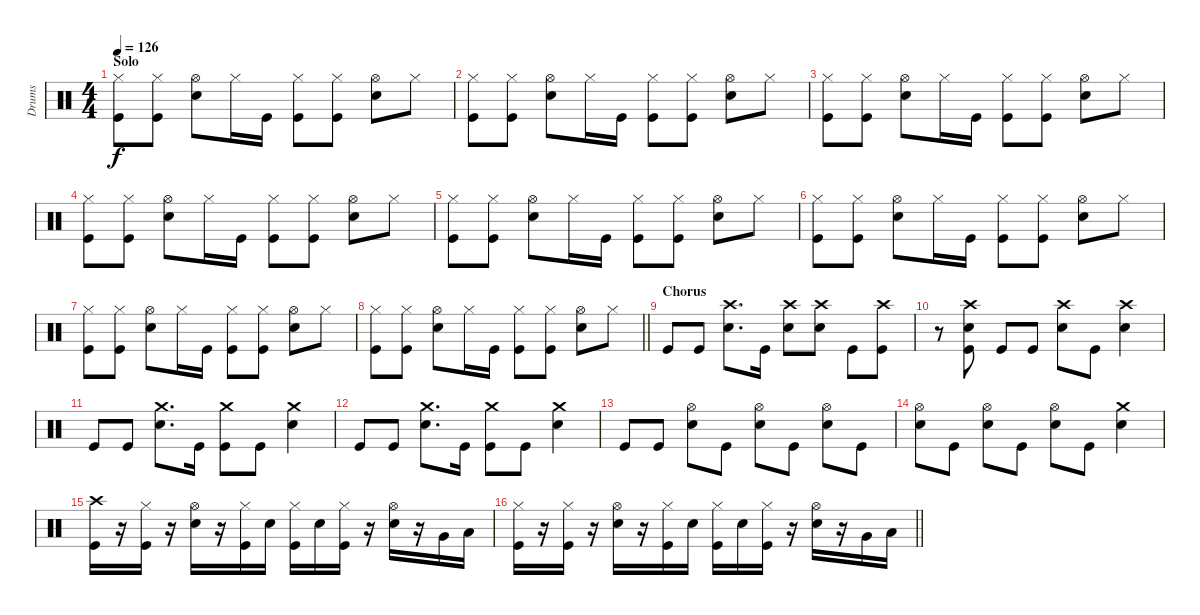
\track ("Drums" "Drums") {instrument percussion}
\staff {score}
\articulation defaults
\ts (4 4)
\section ("" "Solo")
\tempo 126
\clef neutral
\ks c
("Hi-Hat (closed)" "Kick (hit)").8{dy f} ("Hi-Hat (closed)" "Kick (hit)").8 ("Hi-Hat (open)" "Snare (hit) 2").8 "Hi-Hat (closed)".16 "Kick (hit)".16 ("Hi-Hat (closed)" "Kick (hit)").8 ("Hi-Hat (closed)" "Kick (hit)").8 ("Hi-Hat (open)" "Snare (hit) 2").8 "Hi-Hat (closed)".8 |
("Hi-Hat (closed)" "Kick (hit)").8 ("Hi-Hat (closed)" "Kick (hit)").8 ("Hi-Hat (open)" "Snare (hit) 2").8 "Hi-Hat (closed)".16 "Kick (hit)".16 ("Hi-Hat (closed)" "Kick (hit)").8 ("Hi-Hat (closed)" "Kick (hit)").8 ("Hi-Hat (open)" "Snare (hit) 2").8 "Hi-Hat (closed)".8 |
("Hi-Hat (closed)" "Kick (hit)").8 ("Hi-Hat (closed)" "Kick (hit)").8 ("Hi-Hat (open)" "Snare (hit) 2").8 "Hi-Hat (closed)".16 "Kick (hit)".16 ("Hi-Hat (closed)" "Kick (hit)").8 ("Hi-Hat (closed)" "Kick (hit)").8 ("Hi-Hat (open)" "Snare (hit) 2").8 "Hi-Hat (closed)".8 |
("Hi-Hat (closed)" "Kick (hit)").8 ("Hi-Hat (closed)" "Kick (hit)").8 ("Hi-Hat (open)" "Snare (hit) 2").8 "Hi-Hat (closed)".16 "Kick (hit)".16 ("Hi-Hat (closed)" "Kick (hit)").8 ("Hi-Hat (closed)" "Kick (hit)").8 ("Hi-Hat (open)" "Snare (hit) 2").8 "Hi-Hat (closed)".8 |
("Hi-Hat (closed)" "Kick (hit)").8 ("Hi-Hat (closed)" "Kick (hit)").8 ("Hi-Hat (open)" "Snare (hit) 2").8 "Hi-Hat (closed)".16 "Kick (hit)".16 ("Hi-Hat (closed)" "Kick (hit)").8 ("Hi-Hat (closed)" "Kick (hit)").8 ("Hi-Hat (open)" "Snare (hit) 2").8 "Hi-Hat (closed)".8 |
("Hi-Hat (closed)" "Kick (hit)").8 ("Hi-Hat (closed)" "Kick (hit)").8 ("Hi-Hat (open)" "Snare (hit) 2").8 "Hi-Hat (closed)".16 "Kick (hit)".16 ("Hi-Hat (closed)" "Kick (hit)").8 ("Hi-Hat (closed)" "Kick (hit)").8 ("Hi-Hat (open)" "Snare (hit) 2").8 "Hi-Hat (closed)".8 |
("Hi-Hat (closed)" "Kick (hit)").8 ("Hi-Hat (closed)" "Kick (hit)").8 ("Hi-Hat (open)" "Snare (hit) 2").8 "Hi-Hat (closed)".16 "Kick (hit)".16 ("Hi-Hat (closed)" "Kick (hit)").8 ("Hi-Hat (closed)" "Kick (hit)").8 ("Hi-Hat (open)" "Snare (hit) 2").8 "Hi-Hat (closed)".8 |
\barLineRight lightlight
("Hi-Hat (closed)" "Kick (hit)").8 ("Hi-Hat (closed)" "Kick (hit)").8 ("Hi-Hat (open)" "Snare (hit) 2").8 "Hi-Hat (closed)".16 "Kick (hit)".16 ("Hi-Hat (closed)" "Kick (hit)").8 ("Hi-Hat (closed)" "Kick (hit)").8 ("Hi-Hat (open)" "Snare (hit) 2").8 "Hi-Hat (closed)".8 |
\section ("" "Chorus")
"Kick (hit)".8 "Kick (hit)".8 ("Crash high (hit)" "Snare (hit) 2").8{d} "Kick (hit)".16 ("Crash high (hit)" "Snare (hit) 2").8 ("Crash high (hit)" "Snare (hit) 2").8 "Kick (hit)".8 ("Crash high (hit)" "Kick (hit)").8 |
r.8 ("Crash high (hit)" "Snare (hit) 2" "Kick (hit)").8 "Kick (hit)".8 "Kick (hit)".8 ("Crash high (hit)" "Snare (hit) 2").8 "Kick (hit)".8 ("Crash high (hit)" "Snare (hit) 2").4 |
"Kick (hit)".8 "Kick (hit)".8 ("Crash medium (hit)" "Snare (hit) 2").8{d} "Kick (hit)".16 ("Crash medium (hit)" "Kick (hit)").8 "Kick (hit)".8 ("Crash medium (hit)" "Snare (hit) 2").4 |
"Kick (hit)".8 "Kick (hit)".8 ("Crash medium (hit)" "Snare (hit) 2").8{d} "Kick (hit)".16 ("Crash medium (hit)" "Kick (hit)").8 "Kick (hit)".8 ("Crash medium (hit)" "Snare (hit) 2").4 |
"Kick (hit)".8 "Kick (hit)".8 ("Hi-Hat (open)" "Snare (hit) 2").8 "Kick (hit)".8 ("Hi-Hat (open)" "Snare (hit) 2").8 "Kick (hit)".8 ("Hi-Hat (open)" "Snare (hit) 2").8 "Kick (hit)".8 |
("Hi-Hat (open)" "Snare (hit) 2").8 "Kick (hit)".8 ("Hi-Hat (open)" "Snare (hit) 2").8 "Kick (hit)".8 ("Hi-Hat (open)" "Snare (hit) 2").8 "Kick (hit)".8 ("Crash medium (hit)" "Snare (hit) 2").4 |
("Crash high (hit)" "Kick (hit)").16 r.16 ("Hi-Hat (closed)" "Kick (hit)").16 r.16 ("Hi-Hat (open)" "Snare (hit) 2").16 r.16 ("Hi-Hat (closed)" "Kick (hit)").16 "Snare (hit) 2".16 ("Hi-Hat (closed)" "Kick (hit)").16 "Snare (hit) 2".16 ("Hi-Hat (closed)" "Kick (hit)").16 r.16 ("Hi-Hat (open)" "Snare (hit) 2").16 r.16 "Very Low Tom (hit)".16 "Low Tom (hit)".16 |
\barLineRight lightlight
("Hi-Hat (closed)" "Kick (hit)").16 r.16 ("Hi-Hat (closed)" "Kick (hit)").16 r.16 ("Hi-Hat (open)" "Snare (hit) 2").16 r.16 ("Hi-Hat (closed)" "Kick (hit)").16 "Snare (hit) 2".16 ("Hi-Hat (closed)" "Kick (hit)").16 "Snare (hit) 2".16 ("Hi-Hat (closed)" "Kick (hit)").16 r.16 ("Hi-Hat (open)" "Snare (hit) 2").16 r.16 "Very Low Tom (hit)".16 "Low Tom (hit)".16
